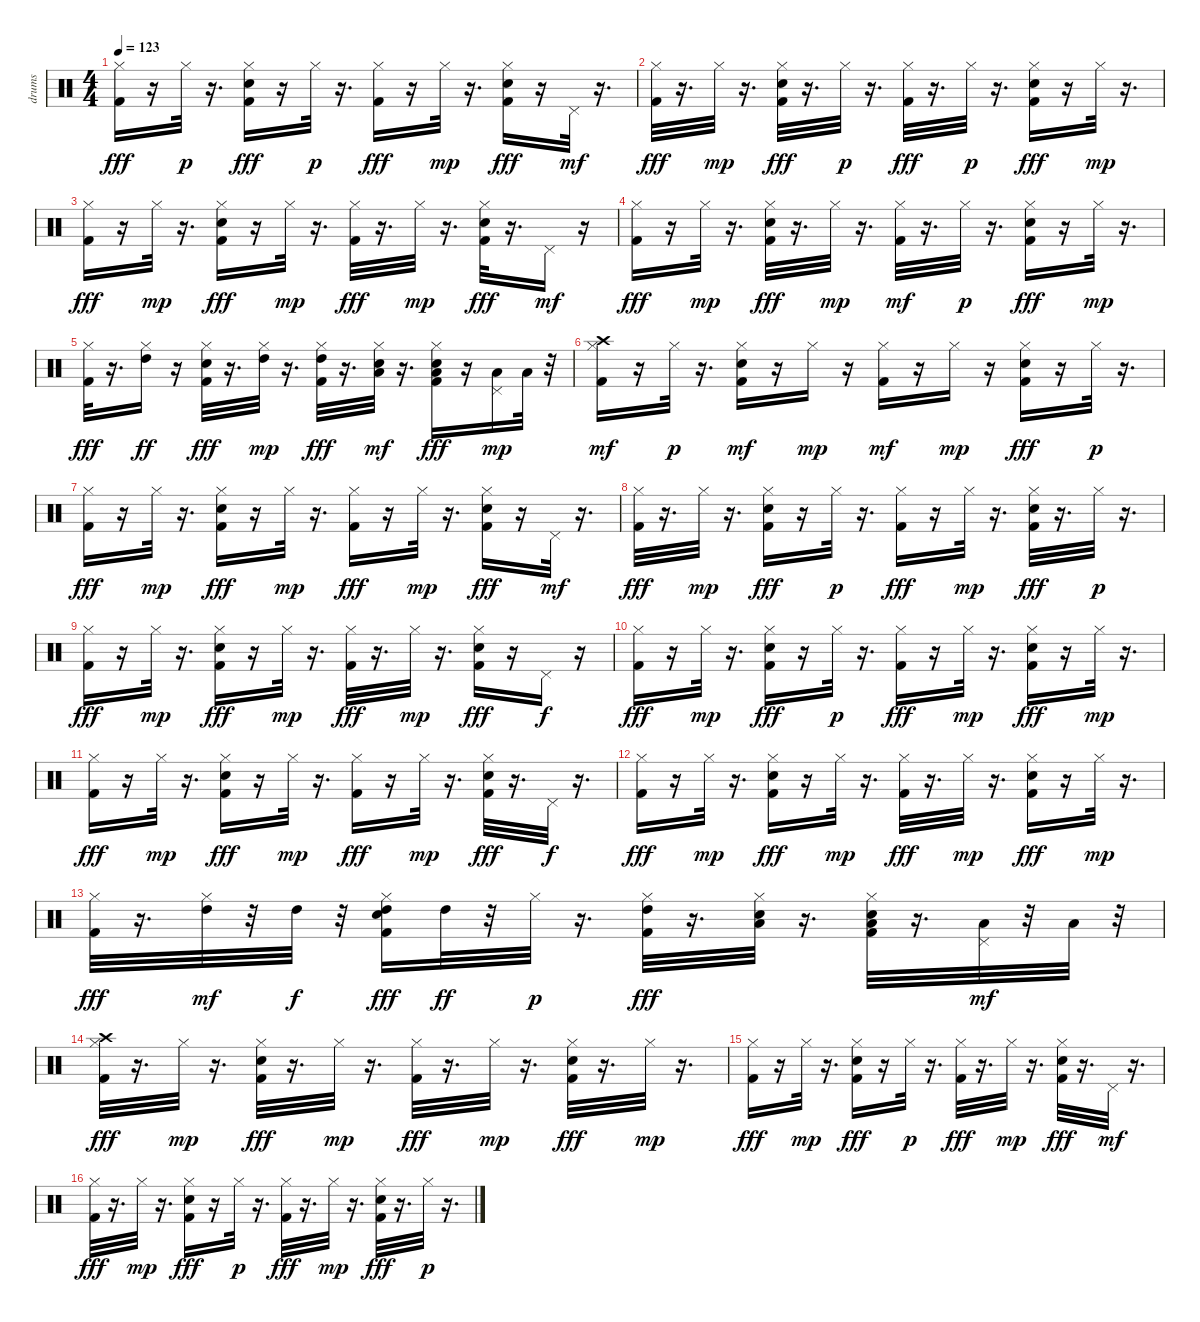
\track ("drums   " "drums   ") {instrument percussion}
\staff {score}
\articulation defaults
\ts (4 4)
\tempo 123
\clef neutral
\ks c
("Hi-Hat (closed)" "Kick (hit) 2").16{dy fff} r.16 "Hi-Hat (closed)".32{dy p} r.16{d} ("Kick (hit) 2" "Hi-Hat (closed)" "Snare (hit) 2").16{dy fff} r.16 "Hi-Hat (closed)".32{dy p} r.16{d} ("Hi-Hat (closed)" "Kick (hit) 2").16{dy fff} r.16 "Hi-Hat (closed)".32{dy mp} r.16{d} ("Kick (hit) 2" "Hi-Hat (closed)" "Snare (hit) 2").16{dy fff} r.16 "Pedal Hi-Hat (hit)".32{dy mf} r.16{d} |
("Hi-Hat (closed)" "Kick (hit) 2").32{dy fff} r.16{d} "Hi-Hat (closed)".32{dy mp} r.16{d} ("Kick (hit) 2" "Hi-Hat (closed)" "Snare (hit) 2").32{dy fff} r.16{d} "Hi-Hat (closed)".32{dy p} r.16{d} ("Kick (hit) 2" "Hi-Hat (closed)").32{dy fff} r.16{d} "Hi-Hat (closed)".32{dy p} r.16{d} ("Kick (hit) 2" "Hi-Hat (closed)" "Snare (hit) 2").16{dy fff} r.16 "Hi-Hat (closed)".32{dy mp} r.16{d} |
("Hi-Hat (closed)" "Kick (hit) 2").16{dy fff} r.16 "Hi-Hat (closed)".32{dy mp} r.16{d} ("Kick (hit) 2" "Hi-Hat (closed)" "Snare (hit) 2").16{dy fff} r.16 "Hi-Hat (closed)".32{dy mp} r.16{d} ("Kick (hit) 2" "Hi-Hat (closed)").32{dy fff} r.16{d} "Hi-Hat (closed)".32{dy mp} r.16{d} ("Kick (hit) 2" "Hi-Hat (closed)" "Snare (hit) 2").32{dy fff} r.16{d} "Pedal Hi-Hat (hit)".16{dy mf} r.16 |
("Hi-Hat (closed)" "Kick (hit) 2").16{dy fff} r.16 "Hi-Hat (closed)".32{dy mp} r.16{d} ("Hi-Hat (closed)" "Kick (hit) 2" "Snare (hit) 2").32{dy fff} r.16{d} "Hi-Hat (closed)".32{dy mp} r.16{d} ("Kick (hit) 2" "Hi-Hat (closed)").32{dy mf} r.16{d} "Hi-Hat (closed)".32{dy p} r.16{d} ("Kick (hit) 2" "Hi-Hat (closed)" "Snare (hit) 2").16{dy fff} r.16 "Hi-Hat (closed)".32{dy mp} r.16{d} |
("Hi-Hat (closed)" "Kick (hit) 2").32{dy fff} r.16{d} ("Hi-Hat (closed)" "High Tom (hit)").16{dy ff} r.16 ("Kick (hit) 2" "Hi-Hat (closed)" "Snare (hit) 2").32{dy fff} r.16{d} ("Hi-Hat (closed)" "High Tom (hit)").32{dy mp} r.16{d} ("Kick (hit) 2" "Hi-Hat (closed)" "High Tom (hit)").32{dy fff} r.16{d} ("Snare (hit) 2" "Hi-Hat (closed)" "Low Tom (hit)").32{dy mf} r.16{d} ("Snare (hit) 2" "Kick (hit) 2" "Hi-Hat (closed)" "Low Tom (hit)").16{dy fff} r.16 ("Pedal Hi-Hat (hit)" "Low Floor Tom (hit)").16{dy mp} "Low Floor Tom (hit)".32 r.32 |
("Hi-Hat (closed)" "Kick (hit) 2" "Crash high (hit)").16{dy mf} r.16 "Hi-Hat (closed)".32{dy p} r.16{d} ("Snare (hit) 2" "Kick (hit) 2" "Hi-Hat (closed)").16{dy mf} r.16 "Hi-Hat (closed)".16{dy mp} r.16 ("Kick (hit) 2" "Hi-Hat (closed)").16{dy mf} r.16 "Hi-Hat (closed)".16{dy mp} r.16 ("Kick (hit) 2" "Hi-Hat (closed)" "Snare (hit) 2").16{dy fff} r.16 "Hi-Hat (closed)".32{dy p} r.16{d} |
("Kick (hit) 2" "Hi-Hat (closed)").16{dy fff} r.16 "Hi-Hat (closed)".32{dy mp} r.16{d} ("Kick (hit) 2" "Hi-Hat (closed)" "Snare (hit) 2").16{dy fff} r.16 "Hi-Hat (closed)".32{dy mp} r.16{d} ("Kick (hit) 2" "Hi-Hat (closed)").16{dy fff} r.16 "Hi-Hat (closed)".32{dy mp} r.16{d} ("Kick (hit) 2" "Hi-Hat (closed)" "Snare (hit) 2").16{dy fff} r.16 "Pedal Hi-Hat (hit)".32{dy mf} r.16{d} |
("Kick (hit) 2" "Hi-Hat (closed)").32{dy fff} r.16{d} "Hi-Hat (closed)".32{dy mp} r.16{d} ("Kick (hit) 2" "Hi-Hat (closed)" "Snare (hit) 2").16{dy fff} r.16 "Hi-Hat (closed)".32{dy p} r.16{d} ("Hi-Hat (closed)" "Kick (hit) 2").16{dy fff} r.16 "Hi-Hat (closed)".32{dy mp} r.16{d} ("Hi-Hat (closed)" "Kick (hit) 2" "Snare (hit) 2").32{dy fff} r.16{d} "Hi-Hat (closed)".32{dy p} r.16{d} |
("Hi-Hat (closed)" "Kick (hit) 2").16{dy fff} r.16 "Hi-Hat (closed)".32{dy mp} r.16{d} ("Hi-Hat (closed)" "Kick (hit) 2" "Snare (hit) 2").16{dy fff} r.16 "Hi-Hat (closed)".32{dy mp} r.16{d} ("Hi-Hat (closed)" "Kick (hit) 2").32{dy fff} r.16{d} "Hi-Hat (closed)".32{dy mp} r.16{d} ("Kick (hit) 2" "Hi-Hat (closed)" "Snare (hit) 2").16{dy fff} r.16 "Pedal Hi-Hat (hit)".16{dy f} r.16 |
("Hi-Hat (closed)" "Kick (hit) 2").16{dy fff} r.16 "Hi-Hat (closed)".32{dy mp} r.16{d} ("Hi-Hat (closed)" "Kick (hit) 2" "Snare (hit) 2").16{dy fff} r.16 "Hi-Hat (closed)".32{dy p} r.16{d} ("Hi-Hat (closed)" "Kick (hit) 2").16{dy fff} r.16 "Hi-Hat (closed)".32{dy mp} r.16{d} ("Kick (hit) 2" "Hi-Hat (closed)" "Snare (hit) 2").16{dy fff} r.16 "Hi-Hat (closed)".32{dy mp} r.16{d} |
("Hi-Hat (closed)" "Kick (hit) 2").16{dy fff} r.16 "Hi-Hat (closed)".32{dy mp} r.16{d} ("Hi-Hat (closed)" "Kick (hit) 2" "Snare (hit) 2").16{dy fff} r.16 "Hi-Hat (closed)".32{dy mp} r.16{d} ("Hi-Hat (closed)" "Kick (hit) 2").16{dy fff} r.16 "Hi-Hat (closed)".32{dy mp} r.16{d} ("Hi-Hat (closed)" "Kick (hit) 2" "Snare (hit) 2").32{dy fff} r.16{d} "Pedal Hi-Hat (hit)".32{dy f} r.16{d} |
("Hi-Hat (closed)" "Kick (hit) 2").16{dy fff} r.16 "Hi-Hat (closed)".32{dy mp} r.16{d} ("Kick (hit) 2" "Hi-Hat (closed)" "Snare (hit) 2").16{dy fff} r.16 "Hi-Hat (closed)".32{dy mp} r.16{d} ("Hi-Hat (closed)" "Kick (hit) 2").32{dy fff} r.16{d} "Hi-Hat (closed)".32{dy mp} r.16{d} ("Hi-Hat (closed)" "Kick (hit) 2" "Snare (hit) 2").16{dy fff} r.16 "Hi-Hat (closed)".32{dy mp} r.16{d} |
("Hi-Hat (closed)" "Kick (hit) 2").32{dy fff} r.16{d} ("Hi-Hat (closed)" "High Tom (hit)").32{dy mf} r.32 "High Tom (hit)".32{dy f} r.32 ("Kick (hit) 2" "Hi-Hat (closed)" "Snare (hit) 2" "High Tom (hit)").16{dy fff} "High Tom (hit)".32{dy ff} r.32 "Hi-Hat (closed)".32{dy p} r.16{d} ("Hi-Hat (closed)" "Kick (hit) 2" "High Tom (hit)").32{dy fff} r.16{d} ("Hi-Hat (closed)" "Snare (hit) 2" "Low Tom (hit)").32 r.16{d} ("Kick (hit) 2" "Hi-Hat (closed)" "Snare (hit) 2" "Low Tom (hit)").32 r.16{d} ("Pedal Hi-Hat (hit)" "Low Floor Tom (hit)").32{dy mf} r.32 "Low Floor Tom (hit)".32 r.32 |
("Hi-Hat (closed)" "Kick (hit) 2" "Crash high (hit)").32{dy fff} r.16{d} "Hi-Hat (closed)".32{dy mp} r.16{d} ("Hi-Hat (closed)" "Kick (hit) 2" "Snare (hit) 2").32{dy fff} r.16{d} "Hi-Hat (closed)".32{dy mp} r.16{d} ("Hi-Hat (closed)" "Kick (hit) 2").32{dy fff} r.16{d} "Hi-Hat (closed)".32{dy mp} r.16{d} ("Snare (hit) 2" "Kick (hit) 2" "Hi-Hat (closed)").32{dy fff} r.16{d} "Hi-Hat (closed)".32{dy mp} r.16{d} |
("Hi-Hat (closed)" "Kick (hit) 2").16{dy fff} r.16 "Hi-Hat (closed)".32{dy mp} r.16{d} ("Kick (hit) 2" "Hi-Hat (closed)" "Snare (hit) 2").16{dy fff} r.16 "Hi-Hat (closed)".32{dy p} r.16{d} ("Hi-Hat (closed)" "Kick (hit) 2").32{dy fff} r.16{d} "Hi-Hat (closed)".32{dy mp} r.16{d} ("Kick (hit) 2" "Hi-Hat (closed)" "Snare (hit) 2").32{dy fff} r.16{d} "Pedal Hi-Hat (hit)".32{dy mf} r.16{d} |
("Hi-Hat (closed)" "Kick (hit) 2").32{dy fff} r.16{d} "Hi-Hat (closed)".32{dy mp} r.16{d} ("Hi-Hat (closed)" "Kick (hit) 2" "Snare (hit) 2").16{dy fff} r.16 "Hi-Hat (closed)".32{dy p} r.16{d} ("Hi-Hat (closed)" "Kick (hit) 2").32{dy fff} r.16{d} "Hi-Hat (closed)".32{dy mp} r.16{d} ("Kick (hit) 2" "Hi-Hat (closed)" "Snare (hit) 2").32{dy fff} r.16{d} "Hi-Hat (closed)".32{dy p} r.16{d}
